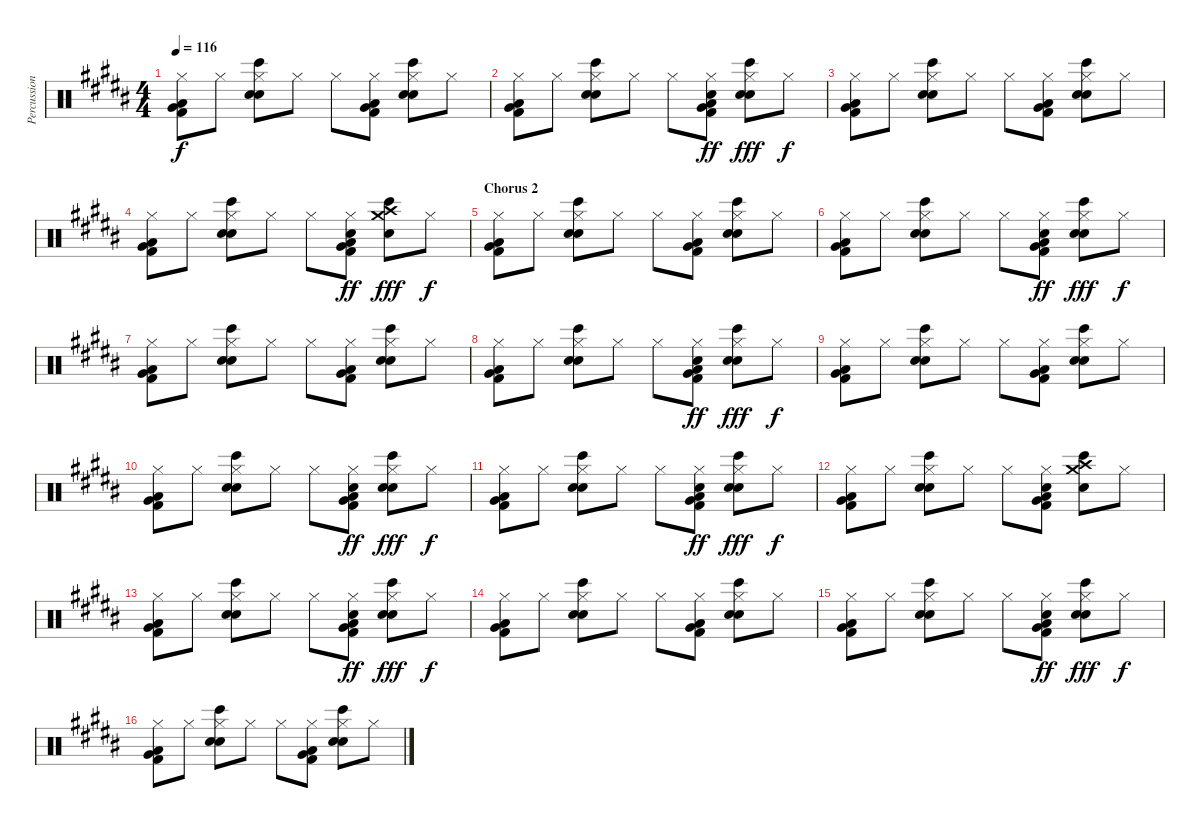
\track ("Percussion" "Percussion") {instrument percussion}
\staff {score}
\articulation defaults
\ts (4 4)
\tempo 116
\clef neutral
\ks b
("Low Tom (hit)" "Very Low Tom (hit)" "Kick (hit) 2" "Hi-Hat (closed)").8{dy f} "Hi-Hat (closed)".8 ("Bongo High (hit)" "Hand Clap (hit)" "Snare (hit) 2" "Hi-Hat (closed)").8 "Hi-Hat (closed)".8 "Hi-Hat (closed)".8 ("Low Tom (hit)" "Very Low Tom (hit)" "Kick (hit) 2" "Hi-Hat (closed)").8 ("Bongo High (hit)" "Hand Clap (hit)" "Snare (hit) 2" "Hi-Hat (closed)").8 "Hi-Hat (closed)".8 |
("Low Tom (hit)" "Very Low Tom (hit)" "Kick (hit) 2" "Hi-Hat (closed)").8 "Hi-Hat (closed)".8 ("Bongo High (hit)" "Hand Clap (hit)" "Snare (hit) 2" "Hi-Hat (closed)").8 "Hi-Hat (closed)".8 "Hi-Hat (closed)".8 ("Low Tom (hit)" "Very Low Tom (hit)" "Kick (hit) 2" "Hi-Hat (closed)" "Hand Clap (hit)").8{dy ff} ("Bongo High (hit)" "Hand Clap (hit)" "Snare (hit) 2" "Hi-Hat (closed)").8{dy fff} "Hi-Hat (closed)".8{dy f} |
("Low Tom (hit)" "Very Low Tom (hit)" "Kick (hit) 2" "Hi-Hat (closed)").8 "Hi-Hat (closed)".8 ("Bongo High (hit)" "Hand Clap (hit)" "Snare (hit) 2" "Hi-Hat (closed)").8 "Hi-Hat (closed)".8 "Hi-Hat (closed)".8 ("Low Tom (hit)" "Very Low Tom (hit)" "Kick (hit) 2" "Hi-Hat (closed)").8 ("Bongo High (hit)" "Hand Clap (hit)" "Snare (hit) 2" "Hi-Hat (closed)").8 "Hi-Hat (closed)".8 |
("Low Tom (hit)" "Very Low Tom (hit)" "Kick (hit) 2" "Hi-Hat (closed)").8 "Hi-Hat (closed)".8 ("Bongo High (hit)" "Hand Clap (hit)" "Snare (hit) 2" "Hi-Hat (closed)").8 "Hi-Hat (closed)".8 "Hi-Hat (closed)".8 ("Low Tom (hit)" "Very Low Tom (hit)" "Kick (hit) 2" "Hi-Hat (closed)" "Hand Clap (hit)").8{dy ff} ("Bongo High (hit)" "Hand Clap (hit)" "Crash medium (hit)" "Crash high (hit)").8{dy fff} "Hi-Hat (closed)".8{dy f} |
\section ("" "Chorus 2")
("Low Tom (hit)" "Very Low Tom (hit)" "Kick (hit) 2" "Hi-Hat (closed)").8 "Hi-Hat (closed)".8 ("Bongo High (hit)" "Hand Clap (hit)" "Snare (hit) 2" "Hi-Hat (closed)").8 "Hi-Hat (closed)".8 "Hi-Hat (closed)".8 ("Low Tom (hit)" "Very Low Tom (hit)" "Kick (hit) 2" "Hi-Hat (closed)").8 ("Bongo High (hit)" "Hand Clap (hit)" "Snare (hit) 2" "Hi-Hat (closed)").8 "Hi-Hat (closed)".8 |
("Low Tom (hit)" "Very Low Tom (hit)" "Kick (hit) 2" "Hi-Hat (closed)").8 "Hi-Hat (closed)".8 ("Bongo High (hit)" "Hand Clap (hit)" "Snare (hit) 2" "Hi-Hat (closed)").8 "Hi-Hat (closed)".8 "Hi-Hat (closed)".8 ("Low Tom (hit)" "Very Low Tom (hit)" "Kick (hit) 2" "Hi-Hat (closed)" "Hand Clap (hit)").8{dy ff} ("Bongo High (hit)" "Hand Clap (hit)" "Snare (hit) 2" "Hi-Hat (closed)").8{dy fff} "Hi-Hat (closed)".8{dy f} |
("Low Tom (hit)" "Very Low Tom (hit)" "Kick (hit) 2" "Hi-Hat (closed)").8 "Hi-Hat (closed)".8 ("Bongo High (hit)" "Hand Clap (hit)" "Snare (hit) 2" "Hi-Hat (closed)").8 "Hi-Hat (closed)".8 "Hi-Hat (closed)".8 ("Low Tom (hit)" "Very Low Tom (hit)" "Kick (hit) 2" "Hi-Hat (closed)").8 ("Bongo High (hit)" "Hand Clap (hit)" "Snare (hit) 2" "Hi-Hat (closed)").8 "Hi-Hat (closed)".8 |
("Low Tom (hit)" "Very Low Tom (hit)" "Kick (hit) 2" "Hi-Hat (closed)").8 "Hi-Hat (closed)".8 ("Bongo High (hit)" "Hand Clap (hit)" "Snare (hit) 2" "Hi-Hat (closed)").8 "Hi-Hat (closed)".8 "Hi-Hat (closed)".8 ("Low Tom (hit)" "Very Low Tom (hit)" "Kick (hit) 2" "Hi-Hat (closed)" "Hand Clap (hit)").8{dy ff} ("Bongo High (hit)" "Hand Clap (hit)" "Snare (hit) 2" "Hi-Hat (closed)").8{dy fff} "Hi-Hat (closed)".8{dy f} |
("Low Tom (hit)" "Very Low Tom (hit)" "Kick (hit) 2" "Hi-Hat (closed)").8 "Hi-Hat (closed)".8 ("Bongo High (hit)" "Hand Clap (hit)" "Snare (hit) 2" "Hi-Hat (closed)").8 "Hi-Hat (closed)".8 "Hi-Hat (closed)".8 ("Low Tom (hit)" "Very Low Tom (hit)" "Kick (hit) 2" "Hi-Hat (closed)").8 ("Bongo High (hit)" "Hand Clap (hit)" "Snare (hit) 2" "Hi-Hat (closed)").8 "Hi-Hat (closed)".8 |
("Low Tom (hit)" "Very Low Tom (hit)" "Kick (hit) 2" "Hi-Hat (closed)").8 "Hi-Hat (closed)".8 ("Bongo High (hit)" "Hand Clap (hit)" "Snare (hit) 2" "Hi-Hat (closed)").8 "Hi-Hat (closed)".8 "Hi-Hat (closed)".8 ("Low Tom (hit)" "Very Low Tom (hit)" "Kick (hit) 2" "Hi-Hat (closed)" "Hand Clap (hit)").8{dy ff} ("Bongo High (hit)" "Hand Clap (hit)" "Snare (hit) 2" "Hi-Hat (closed)").8{dy fff} "Hi-Hat (closed)".8{dy f} |
("Low Tom (hit)" "Very Low Tom (hit)" "Kick (hit) 2" "Hi-Hat (closed)").8 "Hi-Hat (closed)".8 ("Bongo High (hit)" "Hand Clap (hit)" "Snare (hit) 2" "Hi-Hat (closed)").8 "Hi-Hat (closed)".8 "Hi-Hat (closed)".8 ("Low Tom (hit)" "Very Low Tom (hit)" "Kick (hit) 2" "Hi-Hat (closed)" "Hand Clap (hit)").8{dy ff} ("Bongo High (hit)" "Hand Clap (hit)" "Snare (hit) 2" "Hi-Hat (closed)").8{dy fff} "Hi-Hat (closed)".8{dy f} |
("Low Tom (hit)" "Very Low Tom (hit)" "Kick (hit) 2" "Hi-Hat (closed)").8 "Hi-Hat (closed)".8 ("Bongo High (hit)" "Hand Clap (hit)" "Snare (hit) 2" "Hi-Hat (closed)").8 "Hi-Hat (closed)".8 "Hi-Hat (closed)".8 ("Low Tom (hit)" "Very Low Tom (hit)" "Kick (hit) 2" "Hi-Hat (closed)" "Hand Clap (hit)").8 ("Bongo High (hit)" "Hand Clap (hit)" "Crash medium (hit)" "Crash high (hit)").8 "Hi-Hat (closed)".8 |
("Low Tom (hit)" "Very Low Tom (hit)" "Kick (hit) 2" "Hi-Hat (closed)").8 "Hi-Hat (closed)".8 ("Bongo High (hit)" "Hand Clap (hit)" "Snare (hit) 2" "Hi-Hat (closed)").8 "Hi-Hat (closed)".8 "Hi-Hat (closed)".8 ("Low Tom (hit)" "Very Low Tom (hit)" "Kick (hit) 2" "Hi-Hat (closed)" "Hand Clap (hit)").8{dy ff} ("Bongo High (hit)" "Hand Clap (hit)" "Snare (hit) 2" "Hi-Hat (closed)").8{dy fff} "Hi-Hat (closed)".8{dy f} |
("Low Tom (hit)" "Very Low Tom (hit)" "Kick (hit) 2" "Hi-Hat (closed)").8 "Hi-Hat (closed)".8 ("Bongo High (hit)" "Hand Clap (hit)" "Snare (hit) 2" "Hi-Hat (closed)").8 "Hi-Hat (closed)".8 "Hi-Hat (closed)".8 ("Low Tom (hit)" "Very Low Tom (hit)" "Kick (hit) 2" "Hi-Hat (closed)").8 ("Bongo High (hit)" "Hand Clap (hit)" "Snare (hit) 2" "Hi-Hat (closed)").8 "Hi-Hat (closed)".8 |
("Low Tom (hit)" "Very Low Tom (hit)" "Kick (hit) 2" "Hi-Hat (closed)").8 "Hi-Hat (closed)".8 ("Bongo High (hit)" "Hand Clap (hit)" "Snare (hit) 2" "Hi-Hat (closed)").8 "Hi-Hat (closed)".8 "Hi-Hat (closed)".8 ("Low Tom (hit)" "Very Low Tom (hit)" "Kick (hit) 2" "Hi-Hat (closed)" "Hand Clap (hit)").8{dy ff} ("Bongo High (hit)" "Hand Clap (hit)" "Snare (hit) 2" "Hi-Hat (closed)").8{dy fff} "Hi-Hat (closed)".8{dy f} |
("Low Tom (hit)" "Very Low Tom (hit)" "Kick (hit) 2" "Hi-Hat (closed)").8 "Hi-Hat (closed)".8 ("Bongo High (hit)" "Hand Clap (hit)" "Snare (hit) 2" "Hi-Hat (closed)").8 "Hi-Hat (closed)".8 "Hi-Hat (closed)".8 ("Low Tom (hit)" "Very Low Tom (hit)" "Kick (hit) 2" "Hi-Hat (closed)").8 ("Bongo High (hit)" "Hand Clap (hit)" "Snare (hit) 2" "Hi-Hat (closed)").8 "Hi-Hat (closed)".8
